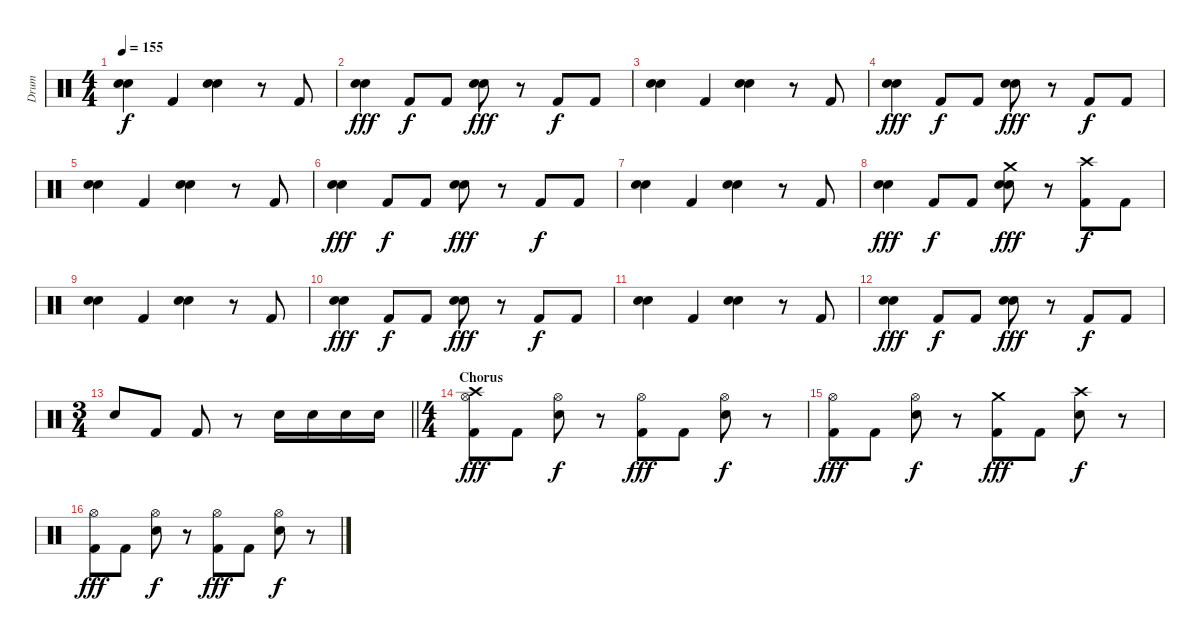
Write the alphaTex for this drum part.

\track ("Drum" "Drum") {instrument percussion}
\staff {score}
\articulation defaults
\ts (4 4)
\tempo 155
\clef neutral
\ks c
("Electric Snare (hit)" "Hand Clap (hit)").4{dy f} "Kick (hit) 2".4 ("Electric Snare (hit)" "Hand Clap (hit)").4 r.8 "Kick (hit) 2".8 |
("Electric Snare (hit)" "Hand Clap (hit)").4{dy fff} "Kick (hit) 2".8{dy f} "Kick (hit) 2".8 ("Electric Snare (hit)" "Hand Clap (hit)").8{dy fff} r.8 "Kick (hit) 2".8{dy f} "Kick (hit) 2".8 |
("Electric Snare (hit)" "Hand Clap (hit)").4 "Kick (hit) 2".4 ("Electric Snare (hit)" "Hand Clap (hit)").4 r.8 "Kick (hit) 2".8 |
("Electric Snare (hit)" "Hand Clap (hit)").4{dy fff} "Kick (hit) 2".8{dy f} "Kick (hit) 2".8 ("Electric Snare (hit)" "Hand Clap (hit)").8{dy fff} r.8 "Kick (hit) 2".8{dy f} "Kick (hit) 2".8 |
("Electric Snare (hit)" "Hand Clap (hit)").4 "Kick (hit) 2".4 ("Electric Snare (hit)" "Hand Clap (hit)").4 r.8 "Kick (hit) 2".8 |
("Electric Snare (hit)" "Hand Clap (hit)").4{dy fff} "Kick (hit) 2".8{dy f} "Kick (hit) 2".8 ("Electric Snare (hit)" "Hand Clap (hit)").8{dy fff} r.8 "Kick (hit) 2".8{dy f} "Kick (hit) 2".8 |
("Electric Snare (hit)" "Hand Clap (hit)").4 "Kick (hit) 2".4 ("Electric Snare (hit)" "Hand Clap (hit)").4 r.8 "Kick (hit) 2".8 |
("Electric Snare (hit)" "Hand Clap (hit)").4{dy fff} "Kick (hit) 2".8{dy f} "Kick (hit) 2".8 ("Crash medium (hit)" "Electric Snare (hit)" "Hand Clap (hit)").8{dy fff} r.8 ("Crash high (hit)" "Kick (hit) 2").8{dy f} "Kick (hit) 2".8 |
("Electric Snare (hit)" "Hand Clap (hit)").4 "Kick (hit) 2".4 ("Electric Snare (hit)" "Hand Clap (hit)").4 r.8 "Kick (hit) 2".8 |
("Electric Snare (hit)" "Hand Clap (hit)").4{dy fff} "Kick (hit) 2".8{dy f} "Kick (hit) 2".8 ("Electric Snare (hit)" "Hand Clap (hit)").8{dy fff} r.8 "Kick (hit) 2".8{dy f} "Kick (hit) 2".8 |
("Electric Snare (hit)" "Hand Clap (hit)").4 "Kick (hit) 2".4 ("Electric Snare (hit)" "Hand Clap (hit)").4 r.8 "Kick (hit) 2".8 |
("Electric Snare (hit)" "Hand Clap (hit)").4{dy fff} "Kick (hit) 2".8{dy f} "Kick (hit) 2".8 ("Electric Snare (hit)" "Hand Clap (hit)").8{dy fff} r.8 "Kick (hit) 2".8{dy f} "Kick (hit) 2".8 |
\ts (3 4)
\barLineRight lightlight "Electric Snare (hit)".8 "Kick (hit) 2".8 "Kick (hit) 2".8
r.8 "Snare (hit) 2".16 "Snare (hit) 2".16 "Snare (hit) 2".16 "Snare (hit) 2".16 |
\ts (4 4)
\section ("" "Chorus")
("Hi-Hat (open)" "Crash high (hit)" "Kick (hit) 2").8{dy fff} "Kick (hit) 2".8 ("Hi-Hat (open)" "Snare (hit) 2").8{dy f} r.8 ("Hi-Hat (open)" "Kick (hit) 2").8{dy fff} "Kick (hit) 2".8 ("Hi-Hat (open)" "Snare (hit) 2").8{dy f} r.8 |
("Hi-Hat (open)" "Kick (hit) 2").8{dy fff} "Kick (hit) 2".8 ("Hi-Hat (open)" "Snare (hit) 2").8{dy f} r.8 ("Crash medium (hit)" "Kick (hit) 2").8{dy fff} "Kick (hit) 2".8 ("Crash high (hit)" "Snare (hit) 2").8{dy f} r.8 |
("Hi-Hat (open)" "Kick (hit) 2").8{dy fff} "Kick (hit) 2".8 ("Hi-Hat (open)" "Snare (hit) 2").8{dy f} r.8 ("Hi-Hat (open)" "Kick (hit) 2").8{dy fff} "Kick (hit) 2".8 ("Hi-Hat (open)" "Snare (hit) 2").8{dy f} r.8
